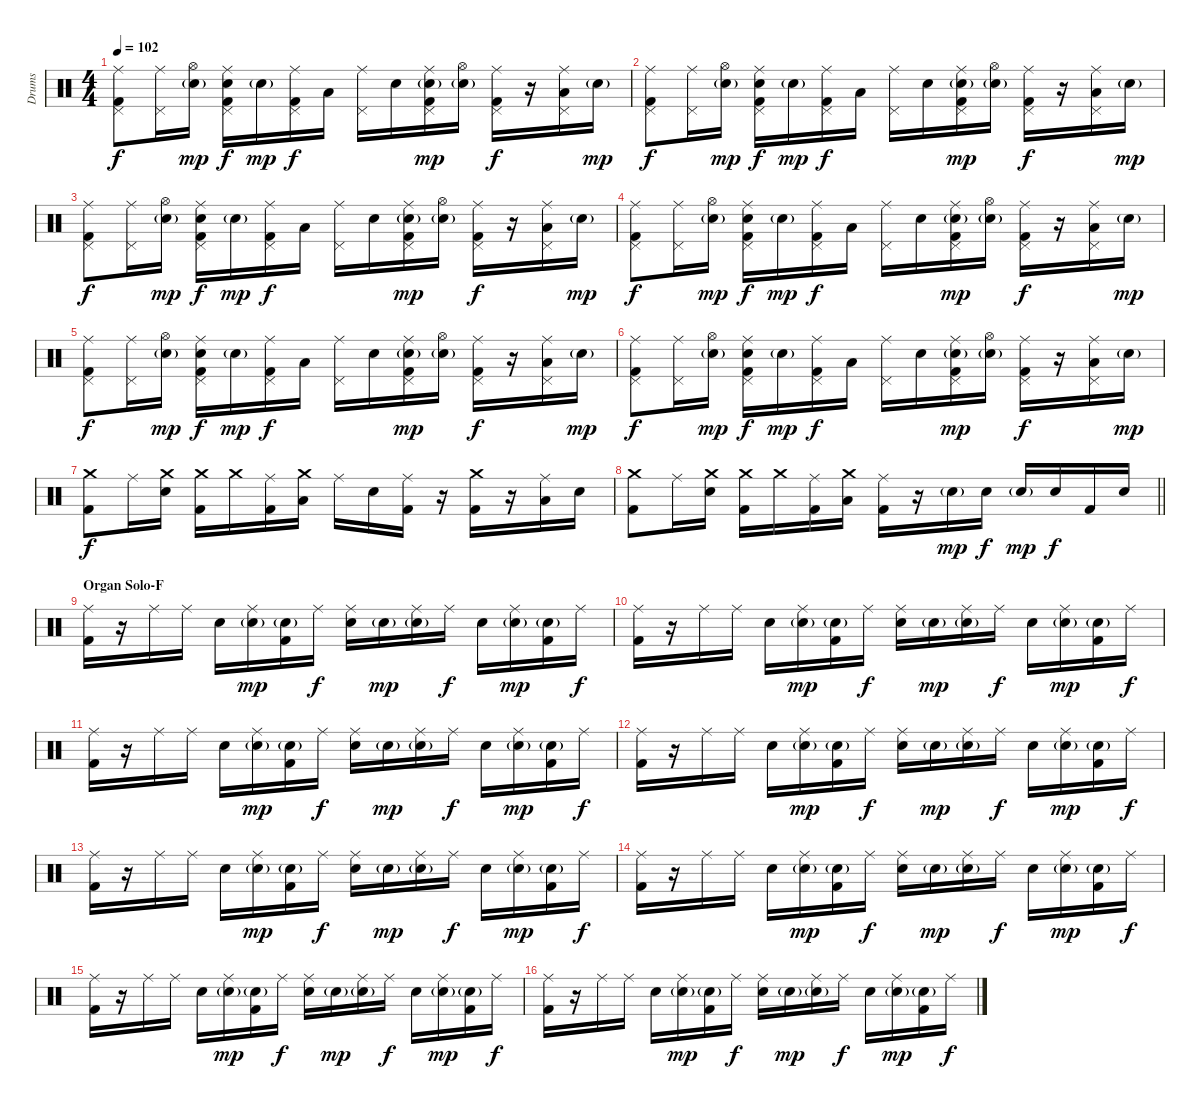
\track ("Drums" "Drums") {instrument percussion}
\staff {score}
\articulation defaults
\ts (4 4)
\tempo 102
\clef neutral
\ks c
("Ride (middle)" "Pedal Hi-Hat (hit)" "Kick (hit) 2").8{dy f} ("Ride (middle)" "Pedal Hi-Hat (hit)").16 ("Hi-Hat (open)" "Electric Snare (hit)"{g}).16{dy mp} ("Ride (middle)" "Pedal Hi-Hat (hit)" "Electric Snare (hit)" "Kick (hit) 2").16{dy f} "Electric Snare (hit)"{g}.16{dy mp} ("Ride (middle)" "Pedal Hi-Hat (hit)" "Kick (hit) 2").16{dy f} "Low Floor Tom (hit)".16 ("Ride (middle)" "Pedal Hi-Hat (hit)").16 "Electric Snare (hit)".16 ("Ride (middle)" "Pedal Hi-Hat (hit)" "Electric Snare (hit)"{g} "Kick (hit) 2").16{dy mp} ("Hi-Hat (open)" "Electric Snare (hit)"{g}).16 ("Ride (middle)" "Pedal Hi-Hat (hit)" "Kick (hit) 2").16{dy f} r.16 ("Ride (middle)" "Pedal Hi-Hat (hit)" "Low Floor Tom (hit)").16 "Electric Snare (hit)"{g}.16{dy mp} |
("Ride (middle)" "Pedal Hi-Hat (hit)" "Kick (hit) 2").8{dy f} ("Ride (middle)" "Pedal Hi-Hat (hit)").16 ("Hi-Hat (open)" "Electric Snare (hit)"{g}).16{dy mp} ("Ride (middle)" "Pedal Hi-Hat (hit)" "Electric Snare (hit)" "Kick (hit) 2").16{dy f} "Electric Snare (hit)"{g}.16{dy mp} ("Ride (middle)" "Pedal Hi-Hat (hit)" "Kick (hit) 2").16{dy f} "Low Floor Tom (hit)".16 ("Ride (middle)" "Pedal Hi-Hat (hit)").16 "Electric Snare (hit)".16 ("Ride (middle)" "Pedal Hi-Hat (hit)" "Electric Snare (hit)"{g} "Kick (hit) 2").16{dy mp} ("Hi-Hat (open)" "Electric Snare (hit)"{g}).16 ("Ride (middle)" "Pedal Hi-Hat (hit)" "Kick (hit) 2").16{dy f} r.16 ("Ride (middle)" "Pedal Hi-Hat (hit)" "Low Floor Tom (hit)").16 "Electric Snare (hit)"{g}.16{dy mp} |
("Ride (middle)" "Pedal Hi-Hat (hit)" "Kick (hit) 2").8{dy f} ("Ride (middle)" "Pedal Hi-Hat (hit)").16 ("Hi-Hat (open)" "Electric Snare (hit)"{g}).16{dy mp} ("Ride (middle)" "Pedal Hi-Hat (hit)" "Electric Snare (hit)" "Kick (hit) 2").16{dy f} "Electric Snare (hit)"{g}.16{dy mp} ("Ride (middle)" "Pedal Hi-Hat (hit)" "Kick (hit) 2").16{dy f} "Low Floor Tom (hit)".16 ("Ride (middle)" "Pedal Hi-Hat (hit)").16 "Electric Snare (hit)".16 ("Ride (middle)" "Pedal Hi-Hat (hit)" "Electric Snare (hit)"{g} "Kick (hit) 2").16{dy mp} ("Hi-Hat (open)" "Electric Snare (hit)"{g}).16 ("Ride (middle)" "Pedal Hi-Hat (hit)" "Kick (hit) 2").16{dy f} r.16 ("Ride (middle)" "Pedal Hi-Hat (hit)" "Low Floor Tom (hit)").16 "Electric Snare (hit)"{g}.16{dy mp} |
("Ride (middle)" "Pedal Hi-Hat (hit)" "Kick (hit) 2").8{dy f} ("Ride (middle)" "Pedal Hi-Hat (hit)").16 ("Hi-Hat (open)" "Electric Snare (hit)"{g}).16{dy mp} ("Ride (middle)" "Pedal Hi-Hat (hit)" "Electric Snare (hit)" "Kick (hit) 2").16{dy f} "Electric Snare (hit)"{g}.16{dy mp} ("Ride (middle)" "Pedal Hi-Hat (hit)" "Kick (hit) 2").16{dy f} "Low Floor Tom (hit)".16 ("Ride (middle)" "Pedal Hi-Hat (hit)").16 "Electric Snare (hit)".16 ("Ride (middle)" "Pedal Hi-Hat (hit)" "Electric Snare (hit)"{g} "Kick (hit) 2").16{dy mp} ("Hi-Hat (open)" "Electric Snare (hit)"{g}).16 ("Ride (middle)" "Pedal Hi-Hat (hit)" "Kick (hit) 2").16{dy f} r.16 ("Ride (middle)" "Pedal Hi-Hat (hit)" "Low Floor Tom (hit)").16 "Electric Snare (hit)"{g}.16{dy mp} |
("Ride (middle)" "Pedal Hi-Hat (hit)" "Kick (hit) 2").8{dy f} ("Ride (middle)" "Pedal Hi-Hat (hit)").16 ("Hi-Hat (open)" "Electric Snare (hit)"{g}).16{dy mp} ("Ride (middle)" "Pedal Hi-Hat (hit)" "Electric Snare (hit)" "Kick (hit) 2").16{dy f} "Electric Snare (hit)"{g}.16{dy mp} ("Ride (middle)" "Pedal Hi-Hat (hit)" "Kick (hit) 2").16{dy f} "Low Floor Tom (hit)".16 ("Ride (middle)" "Pedal Hi-Hat (hit)").16 "Electric Snare (hit)".16 ("Ride (middle)" "Pedal Hi-Hat (hit)" "Electric Snare (hit)"{g} "Kick (hit) 2").16{dy mp} ("Hi-Hat (open)" "Electric Snare (hit)"{g}).16 ("Ride (middle)" "Pedal Hi-Hat (hit)" "Kick (hit) 2").16{dy f} r.16 ("Ride (middle)" "Pedal Hi-Hat (hit)" "Low Floor Tom (hit)").16 "Electric Snare (hit)"{g}.16{dy mp} |
("Ride (middle)" "Pedal Hi-Hat (hit)" "Kick (hit) 2").8{dy f} ("Ride (middle)" "Pedal Hi-Hat (hit)").16 ("Hi-Hat (open)" "Electric Snare (hit)"{g}).16{dy mp} ("Ride (middle)" "Pedal Hi-Hat (hit)" "Electric Snare (hit)" "Kick (hit) 2").16{dy f} "Electric Snare (hit)"{g}.16{dy mp} ("Ride (middle)" "Pedal Hi-Hat (hit)" "Kick (hit) 2").16{dy f} "Low Floor Tom (hit)".16 ("Ride (middle)" "Pedal Hi-Hat (hit)").16 "Electric Snare (hit)".16 ("Ride (middle)" "Pedal Hi-Hat (hit)" "Electric Snare (hit)"{g} "Kick (hit) 2").16{dy mp} ("Hi-Hat (open)" "Electric Snare (hit)"{g}).16 ("Ride (middle)" "Pedal Hi-Hat (hit)" "Kick (hit) 2").16{dy f} r.16 ("Ride (middle)" "Pedal Hi-Hat (hit)" "Low Floor Tom (hit)").16 "Electric Snare (hit)"{g}.16{dy mp} |
("Crash medium (hit)" "Kick (hit) 2").8{dy f} "Ride (middle)".16 ("Crash medium (hit)" "Electric Snare (hit)").16 ("Crash medium (hit)" "Kick (hit) 2").16 "Crash medium (hit)".16 ("Ride (middle)" "Kick (hit) 2").16 ("Crash medium (hit)" "Low Floor Tom (hit)").16 "Ride (middle)".16 "Electric Snare (hit)".16 ("Ride (middle)" "Kick (hit) 2").16 r.16 ("Crash medium (hit)" "Kick (hit) 2").16 r.16 ("Ride (middle)" "Low Floor Tom (hit)").16 "Electric Snare (hit)".16 |
\barLineRight lightlight
("Crash medium (hit)" "Kick (hit) 2").8 "Ride (middle)".16 ("Crash medium (hit)" "Electric Snare (hit)").16 ("Crash medium (hit)" "Kick (hit) 2").16 "Crash medium (hit)".16 ("Ride (middle)" "Kick (hit) 2").16 ("Crash medium (hit)" "Low Floor Tom (hit)").16 ("Ride (middle)" "Kick (hit) 2").16 r.16 "Electric Snare (hit)"{g}.16{dy mp} "Electric Snare (hit)".16{dy f} "Electric Snare (hit)"{g}.16{dy mp} "Electric Snare (hit)".16{dy f} "Kick (hit) 2".16 "Electric Snare (hit)".16 |
\section ("" "Organ Solo-F")
("Ride (middle)" "Kick (hit) 2").16 r.16 "Ride (middle)".16 "Ride (middle)".16 "Electric Snare (hit)".16 ("Ride (middle)" "Electric Snare (hit)"{g}).16{dy mp} ("Electric Snare (hit)"{g} "Kick (hit) 2").16 "Ride (middle)".16{dy f} ("Ride (middle)" "Electric Snare (hit)").16 "Electric Snare (hit)"{g}.16{dy mp} ("Ride (middle)" "Electric Snare (hit)"{g}).16 "Ride (middle)".16{dy f} "Electric Snare (hit)".16 ("Ride (middle)" "Electric Snare (hit)"{g}).16{dy mp} ("Electric Snare (hit)"{g} "Kick (hit) 2").16 "Ride (middle)".16{dy f} |
("Ride (middle)" "Kick (hit) 2").16 r.16 "Ride (middle)".16 "Ride (middle)".16 "Electric Snare (hit)".16 ("Ride (middle)" "Electric Snare (hit)"{g}).16{dy mp} ("Electric Snare (hit)"{g} "Kick (hit) 2").16 "Ride (middle)".16{dy f} ("Ride (middle)" "Electric Snare (hit)").16 "Electric Snare (hit)"{g}.16{dy mp} ("Ride (middle)" "Electric Snare (hit)"{g}).16 "Ride (middle)".16{dy f} "Electric Snare (hit)".16 ("Ride (middle)" "Electric Snare (hit)"{g}).16{dy mp} ("Electric Snare (hit)"{g} "Kick (hit) 2").16 "Ride (middle)".16{dy f} |
("Ride (middle)" "Kick (hit) 2").16 r.16 "Ride (middle)".16 "Ride (middle)".16 "Electric Snare (hit)".16 ("Ride (middle)" "Electric Snare (hit)"{g}).16{dy mp} ("Electric Snare (hit)"{g} "Kick (hit) 2").16 "Ride (middle)".16{dy f} ("Ride (middle)" "Electric Snare (hit)").16 "Electric Snare (hit)"{g}.16{dy mp} ("Ride (middle)" "Electric Snare (hit)"{g}).16 "Ride (middle)".16{dy f} "Electric Snare (hit)".16 ("Ride (middle)" "Electric Snare (hit)"{g}).16{dy mp} ("Electric Snare (hit)"{g} "Kick (hit) 2").16 "Ride (middle)".16{dy f} |
("Ride (middle)" "Kick (hit) 2").16 r.16 "Ride (middle)".16 "Ride (middle)".16 "Electric Snare (hit)".16 ("Ride (middle)" "Electric Snare (hit)"{g}).16{dy mp} ("Electric Snare (hit)"{g} "Kick (hit) 2").16 "Ride (middle)".16{dy f} ("Ride (middle)" "Electric Snare (hit)").16 "Electric Snare (hit)"{g}.16{dy mp} ("Ride (middle)" "Electric Snare (hit)"{g}).16 "Ride (middle)".16{dy f} "Electric Snare (hit)".16 ("Ride (middle)" "Electric Snare (hit)"{g}).16{dy mp} ("Electric Snare (hit)"{g} "Kick (hit) 2").16 "Ride (middle)".16{dy f} |
("Ride (middle)" "Kick (hit) 2").16 r.16 "Ride (middle)".16 "Ride (middle)".16 "Electric Snare (hit)".16 ("Ride (middle)" "Electric Snare (hit)"{g}).16{dy mp} ("Electric Snare (hit)"{g} "Kick (hit) 2").16 "Ride (middle)".16{dy f} ("Ride (middle)" "Electric Snare (hit)").16 "Electric Snare (hit)"{g}.16{dy mp} ("Ride (middle)" "Electric Snare (hit)"{g}).16 "Ride (middle)".16{dy f} "Electric Snare (hit)".16 ("Ride (middle)" "Electric Snare (hit)"{g}).16{dy mp} ("Electric Snare (hit)"{g} "Kick (hit) 2").16 "Ride (middle)".16{dy f} |
("Ride (middle)" "Kick (hit) 2").16 r.16 "Ride (middle)".16 "Ride (middle)".16 "Electric Snare (hit)".16 ("Ride (middle)" "Electric Snare (hit)"{g}).16{dy mp} ("Electric Snare (hit)"{g} "Kick (hit) 2").16 "Ride (middle)".16{dy f} ("Ride (middle)" "Electric Snare (hit)").16 "Electric Snare (hit)"{g}.16{dy mp} ("Ride (middle)" "Electric Snare (hit)"{g}).16 "Ride (middle)".16{dy f} "Electric Snare (hit)".16 ("Ride (middle)" "Electric Snare (hit)"{g}).16{dy mp} ("Electric Snare (hit)"{g} "Kick (hit) 2").16 "Ride (middle)".16{dy f} |
("Ride (middle)" "Kick (hit) 2").16 r.16 "Ride (middle)".16 "Ride (middle)".16 "Electric Snare (hit)".16 ("Ride (middle)" "Electric Snare (hit)"{g}).16{dy mp} ("Electric Snare (hit)"{g} "Kick (hit) 2").16 "Ride (middle)".16{dy f} ("Ride (middle)" "Electric Snare (hit)").16 "Electric Snare (hit)"{g}.16{dy mp} ("Ride (middle)" "Electric Snare (hit)"{g}).16 "Ride (middle)".16{dy f} "Electric Snare (hit)".16 ("Ride (middle)" "Electric Snare (hit)"{g}).16{dy mp} ("Electric Snare (hit)"{g} "Kick (hit) 2").16 "Ride (middle)".16{dy f} |
("Ride (middle)" "Kick (hit) 2").16 r.16 "Ride (middle)".16 "Ride (middle)".16 "Electric Snare (hit)".16 ("Ride (middle)" "Electric Snare (hit)"{g}).16{dy mp} ("Electric Snare (hit)"{g} "Kick (hit) 2").16 "Ride (middle)".16{dy f} ("Ride (middle)" "Electric Snare (hit)").16 "Electric Snare (hit)"{g}.16{dy mp} ("Ride (middle)" "Electric Snare (hit)"{g}).16 "Ride (middle)".16{dy f} "Electric Snare (hit)".16 ("Ride (middle)" "Electric Snare (hit)"{g}).16{dy mp} ("Electric Snare (hit)"{g} "Kick (hit) 2").16 "Ride (middle)".16{dy f}
